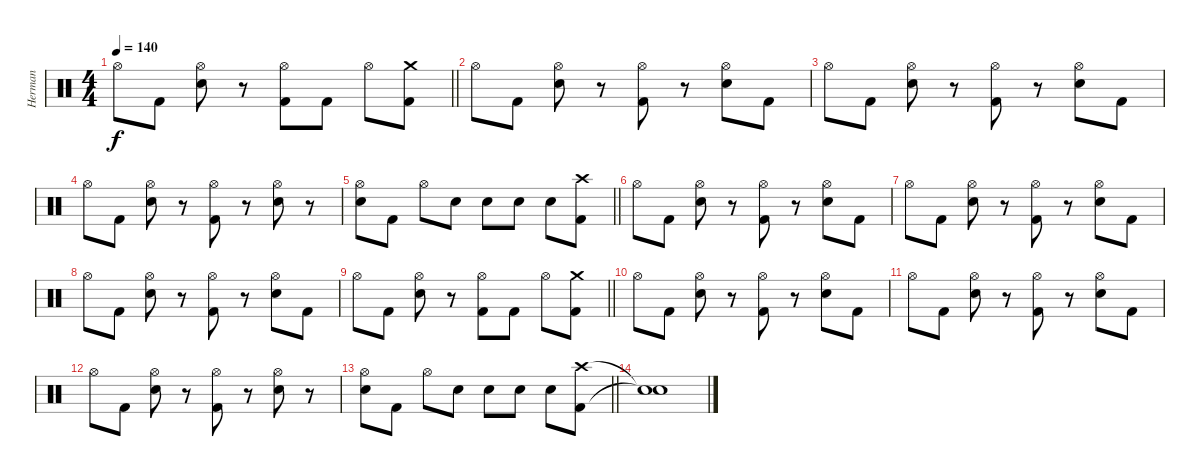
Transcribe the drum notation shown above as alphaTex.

\track ("Herman" "Herman") {instrument percussion}
\staff {score}
\articulation defaults
\ts (4 4)
\tempo 140
\clef neutral
\barLineRight lightlight
\ks c "Hi-Hat (open)".8{dy f} "Kick (hit) 2".8
("Hi-Hat (open)" "Electric Snare (hit)").8 r.8 ("Hi-Hat (open)" "Kick (hit) 2").8 "Kick (hit) 2".8 "Hi-Hat (open)".8 ("Crash medium (hit)" "Kick (hit) 2").8 |
"Hi-Hat (open)".8 "Kick (hit) 2".8 ("Hi-Hat (open)" "Electric Snare (hit)").8 r.8 ("Hi-Hat (open)" "Kick (hit) 2").8 r.8 ("Hi-Hat (open)" "Electric Snare (hit)").8 "Kick (hit) 2".8 |
"Hi-Hat (open)".8 "Kick (hit) 2".8 ("Hi-Hat (open)" "Electric Snare (hit)").8 r.8 ("Hi-Hat (open)" "Kick (hit) 2").8 r.8 ("Hi-Hat (open)" "Electric Snare (hit)").8 "Kick (hit) 2".8 |
"Hi-Hat (open)".8 "Kick (hit) 2".8 ("Hi-Hat (open)" "Electric Snare (hit)").8 r.8 ("Hi-Hat (open)" "Kick (hit) 2").8 r.8 ("Hi-Hat (open)" "Electric Snare (hit)").8 r.8 |
\barLineRight lightlight
("Hi-Hat (open)" "Electric Snare (hit)").8 "Kick (hit) 2".8 "Hi-Hat (open)".8 "Electric Snare (hit)".8 "Electric Snare (hit)".8 "Electric Snare (hit)".8 "Electric Snare (hit)".8 ("Crash high (hit)" "Kick (hit) 2").8 |
"Hi-Hat (open)".8 "Kick (hit) 2".8 ("Hi-Hat (open)" "Electric Snare (hit)").8 r.8 ("Hi-Hat (open)" "Kick (hit) 2").8 r.8 ("Hi-Hat (open)" "Electric Snare (hit)").8 "Kick (hit) 2".8 |
"Hi-Hat (open)".8 "Kick (hit) 2".8 ("Hi-Hat (open)" "Electric Snare (hit)").8 r.8 ("Hi-Hat (open)" "Kick (hit) 2").8 r.8 ("Hi-Hat (open)" "Electric Snare (hit)").8 "Kick (hit) 2".8 |
"Hi-Hat (open)".8 "Kick (hit) 2".8 ("Hi-Hat (open)" "Electric Snare (hit)").8 r.8 ("Hi-Hat (open)" "Kick (hit) 2").8 r.8 ("Hi-Hat (open)" "Electric Snare (hit)").8 "Kick (hit) 2".8 |
\barLineRight lightlight "Hi-Hat (open)".8 "Kick (hit) 2".8
("Hi-Hat (open)" "Electric Snare (hit)").8 r.8 ("Hi-Hat (open)" "Kick (hit) 2").8 "Kick (hit) 2".8 "Hi-Hat (open)".8 ("Crash medium (hit)" "Kick (hit) 2").8 |
"Hi-Hat (open)".8 "Kick (hit) 2".8 ("Hi-Hat (open)" "Electric Snare (hit)").8 r.8 ("Hi-Hat (open)" "Kick (hit) 2").8 r.8 ("Hi-Hat (open)" "Electric Snare (hit)").8 "Kick (hit) 2".8 |
"Hi-Hat (open)".8 "Kick (hit) 2".8 ("Hi-Hat (open)" "Electric Snare (hit)").8 r.8 ("Hi-Hat (open)" "Kick (hit) 2").8 r.8 ("Hi-Hat (open)" "Electric Snare (hit)").8 "Kick (hit) 2".8 |
"Hi-Hat (open)".8 "Kick (hit) 2".8 ("Hi-Hat (open)" "Electric Snare (hit)").8 r.8 ("Hi-Hat (open)" "Kick (hit) 2").8 r.8 ("Hi-Hat (open)" "Electric Snare (hit)").8 r.8 |
\barLineRight lightlight
("Hi-Hat (open)" "Electric Snare (hit)").8 "Kick (hit) 2".8 "Hi-Hat (open)".8 "Electric Snare (hit)".8 "Electric Snare (hit)".8 "Electric Snare (hit)".8 "Electric Snare (hit)".8 ("Crash high (hit)" "Kick (hit) 2").8 |
("Snare (hit)"{t} "Snare (hit)"{t}).1
